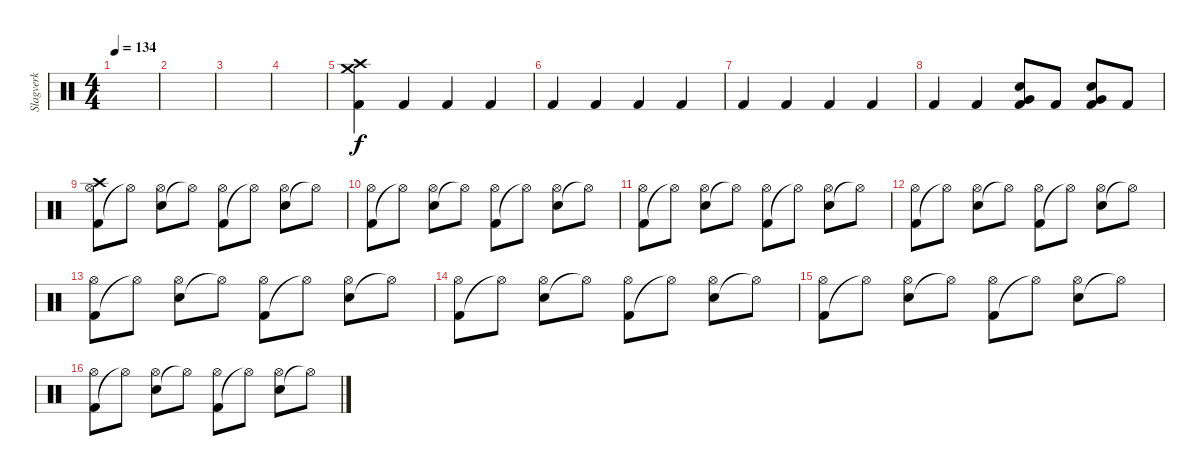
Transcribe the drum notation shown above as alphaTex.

\track ("Slagverk" "Slagverk") {instrument percussion}
\staff {score}
\articulation defaults
\ts (4 4)
\tempo 134
\clef neutral
\ks c
|
|
|
|
("Kick (hit) 2" "Crash high (hit)" "Crash medium (hit)").4 "Kick (hit) 2".4 "Kick (hit) 2".4 "Kick (hit) 2".4 |
"Kick (hit) 2".4 "Kick (hit) 2".4 "Kick (hit) 2".4 "Kick (hit) 2".4 |
"Kick (hit) 2".4 "Kick (hit) 2".4 "Kick (hit) 2".4 "Kick (hit) 2".4 |
"Kick (hit) 2".4 "Kick (hit) 2".4 ("Kick (hit) 2" "Very Low Tom (hit)" "Electric Snare (hit)").8 "Kick (hit) 2".8 ("Kick (hit) 2" "Very Low Tom (hit)" "Electric Snare (hit)").8 "Kick (hit) 2".8 |
("Kick (hit) 2" "Hi-Hat (open)" "Crash high (hit)").8 "Hi-Hat (open)"{t}.8 ("Electric Snare (hit)" "Hi-Hat (open)").8 "Hi-Hat (open)"{t}.8 ("Kick (hit) 2" "Hi-Hat (open)").8 "Hi-Hat (open)"{t}.8 ("Electric Snare (hit)" "Hi-Hat (open)").8 "Hi-Hat (open)"{t}.8 |
("Kick (hit) 2" "Hi-Hat (open)").8 "Hi-Hat (open)"{t}.8 ("Electric Snare (hit)" "Hi-Hat (open)").8 "Hi-Hat (open)"{t}.8 ("Kick (hit) 2" "Hi-Hat (open)").8 "Hi-Hat (open)"{t}.8 ("Electric Snare (hit)" "Hi-Hat (open)").8 "Hi-Hat (open)"{t}.8 |
("Kick (hit) 2" "Hi-Hat (open)").8 "Hi-Hat (open)"{t}.8 ("Electric Snare (hit)" "Hi-Hat (open)").8 "Hi-Hat (open)"{t}.8 ("Kick (hit) 2" "Hi-Hat (open)").8 "Hi-Hat (open)"{t}.8 ("Electric Snare (hit)" "Hi-Hat (open)").8 "Hi-Hat (open)"{t}.8 |
("Kick (hit) 2" "Hi-Hat (open)").8 "Hi-Hat (open)"{t}.8 ("Electric Snare (hit)" "Hi-Hat (open)").8 "Hi-Hat (open)"{t}.8 ("Kick (hit) 2" "Hi-Hat (open)").8 "Hi-Hat (open)"{t}.8 ("Electric Snare (hit)" "Hi-Hat (open)").8 "Hi-Hat (open)"{t}.8 |
("Kick (hit) 2" "Hi-Hat (open)").8 "Hi-Hat (open)"{t}.8 ("Electric Snare (hit)" "Hi-Hat (open)").8 "Hi-Hat (open)"{t}.8 ("Kick (hit) 2" "Hi-Hat (open)").8 "Hi-Hat (open)"{t}.8 ("Electric Snare (hit)" "Hi-Hat (open)").8 "Hi-Hat (open)"{t}.8 |
("Kick (hit) 2" "Hi-Hat (open)").8 "Hi-Hat (open)"{t}.8 ("Electric Snare (hit)" "Hi-Hat (open)").8 "Hi-Hat (open)"{t}.8 ("Kick (hit) 2" "Hi-Hat (open)").8 "Hi-Hat (open)"{t}.8 ("Electric Snare (hit)" "Hi-Hat (open)").8 "Hi-Hat (open)"{t}.8 |
("Kick (hit) 2" "Hi-Hat (open)").8 "Hi-Hat (open)"{t}.8 ("Electric Snare (hit)" "Hi-Hat (open)").8 "Hi-Hat (open)"{t}.8 ("Kick (hit) 2" "Hi-Hat (open)").8 "Hi-Hat (open)"{t}.8 ("Electric Snare (hit)" "Hi-Hat (open)").8 "Hi-Hat (open)"{t}.8 |
("Kick (hit) 2" "Hi-Hat (open)").8 "Hi-Hat (open)"{t}.8 ("Electric Snare (hit)" "Hi-Hat (open)").8 "Hi-Hat (open)"{t}.8 ("Kick (hit) 2" "Hi-Hat (open)").8 "Hi-Hat (open)"{t}.8 ("Electric Snare (hit)" "Hi-Hat (open)").8 "Hi-Hat (open)"{t}.8
